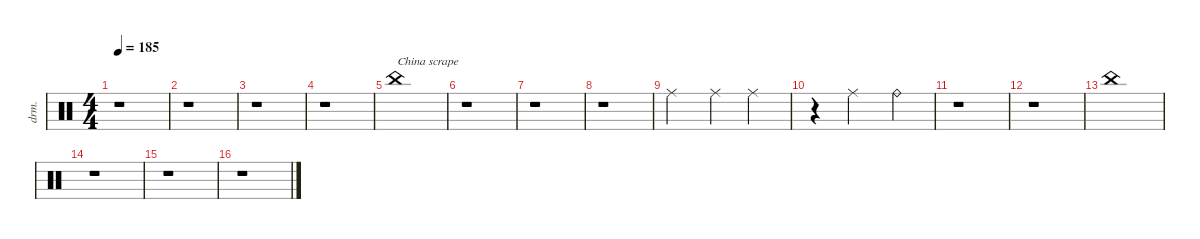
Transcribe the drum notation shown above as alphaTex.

\defaultSystemsLayout 4
\hideDynamics
\bracketExtendMode nobrackets
\track ("Drums - Šimon" "drm.") {instrument percussion}
\staff {score}
\articulation defaults
\ts (4 4)
\tempo 185
\clef neutral
\ks c
r.1{dy ff} |
r.1 |
r.1 |
r.1 |
"China (hit)".1{txt "China scrape" dy p} |
r.1 |
r.1 |
r.1 |
"Ride (middle)".2 "Ride (middle)".4 "Ride (middle)".4 |
r.4 "Ride (middle)".2{dy mf} "Ride (bell)".4 |
r.1 |
r.1 |
"China (hit)".1{dy p} |
r.1 |
r.1 |
r.1
